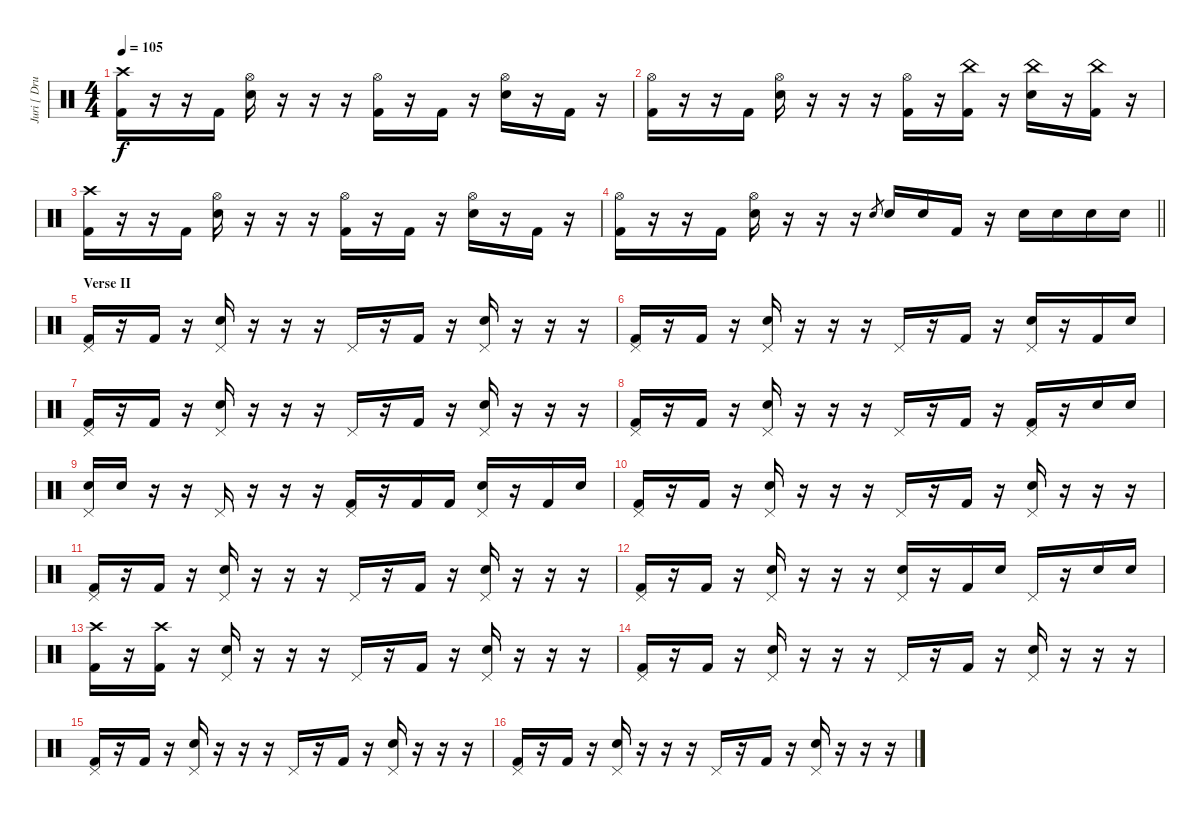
\track ("Juri [ Drums]" "Juri [ Dru") {instrument percussion}
\staff {score}
\articulation defaults
\ts (4 4)
\tempo 105
\clef neutral
\ks c
("Crash high (hit)" "Kick (hit) 2").16{dy f} r.16 r.16 "Kick (hit) 2".16 ("Hi-Hat (open)" "Electric Snare (hit)").16 r.16 r.16 r.16 ("Hi-Hat (open)" "Kick (hit) 2").16 r.16 "Kick (hit) 2".16 r.16 ("Hi-Hat (open)" "Electric Snare (hit)").16 r.16 "Kick (hit) 2".16 r.16 |
("Hi-Hat (open)" "Kick (hit) 2").16 r.16 r.16 "Kick (hit) 2".16 ("Hi-Hat (open)" "Electric Snare (hit)").16 r.16 r.16 r.16 ("Hi-Hat (open)" "Kick (hit) 2").16 r.16 ("China (hit)" "Kick (hit) 2").16 r.16 ("China (hit)" "Electric Snare (hit)").16 r.16 ("China (hit)" "Kick (hit) 2").16 r.16 |
("Crash high (hit)" "Kick (hit) 2").16 r.16 r.16 "Kick (hit) 2".16 ("Hi-Hat (open)" "Electric Snare (hit)").16 r.16 r.16 r.16 ("Hi-Hat (open)" "Kick (hit) 2").16 r.16 "Kick (hit) 2".16 r.16 ("Hi-Hat (open)" "Electric Snare (hit)").16 r.16 "Kick (hit) 2".16 r.16 |
\barLineRight lightlight
("Hi-Hat (open)" "Kick (hit) 2").16 r.16 r.16 "Kick (hit) 2".16 ("Hi-Hat (open)" "Electric Snare (hit)").16 r.16 r.16 r.16 "Electric Snare (hit)".8{gr} "Electric Snare (hit)".16 "Electric Snare (hit)".16 "Kick (hit) 2".16 r.16 "Electric Snare (hit)".16 "Electric Snare (hit)".16 "Electric Snare (hit)".16 "Electric Snare (hit)".16 |
\section ("" "Verse II")
("Pedal Hi-Hat (hit)" "Kick (hit) 2").16 r.16 "Kick (hit) 2".16 r.16 ("Pedal Hi-Hat (hit)" "Electric Snare (hit)").16 r.16 r.16 r.16 "Pedal Hi-Hat (hit)".16 r.16 "Kick (hit) 2".16 r.16 ("Pedal Hi-Hat (hit)" "Electric Snare (hit)").16 r.16 r.16 r.16 |
("Pedal Hi-Hat (hit)" "Kick (hit) 2").16 r.16 "Kick (hit) 2".16 r.16 ("Pedal Hi-Hat (hit)" "Electric Snare (hit)").16 r.16 r.16 r.16 "Pedal Hi-Hat (hit)".16 r.16 "Kick (hit) 2".16 r.16 ("Pedal Hi-Hat (hit)" "Electric Snare (hit)").16 r.16 "Kick (hit) 2".16 "Electric Snare (hit)".16 |
("Pedal Hi-Hat (hit)" "Kick (hit) 2").16 r.16 "Kick (hit) 2".16 r.16 ("Pedal Hi-Hat (hit)" "Electric Snare (hit)").16 r.16 r.16 r.16 "Pedal Hi-Hat (hit)".16 r.16 "Kick (hit) 2".16 r.16 ("Pedal Hi-Hat (hit)" "Electric Snare (hit)").16 r.16 r.16 r.16 |
("Pedal Hi-Hat (hit)" "Kick (hit) 2").16 r.16 "Kick (hit) 2".16 r.16 ("Pedal Hi-Hat (hit)" "Electric Snare (hit)").16 r.16 r.16 r.16 "Pedal Hi-Hat (hit)".16 r.16 "Kick (hit) 2".16 r.16 ("Pedal Hi-Hat (hit)" "Kick (hit) 2").16 r.16 "Electric Snare (hit)".16 "Electric Snare (hit)".16 |
("Pedal Hi-Hat (hit)" "Electric Snare (hit)").16 "Electric Snare (hit)".16 r.16 r.16 "Pedal Hi-Hat (hit)".16 r.16 r.16 r.16 ("Pedal Hi-Hat (hit)" "Kick (hit) 2").16 r.16 "Kick (hit) 2".16 "Kick (hit) 2".16 ("Pedal Hi-Hat (hit)" "Electric Snare (hit)").16 r.16 "Kick (hit) 2".16 "Electric Snare (hit)".16 |
("Pedal Hi-Hat (hit)" "Kick (hit) 2").16 r.16 "Kick (hit) 2".16 r.16 ("Pedal Hi-Hat (hit)" "Electric Snare (hit)").16 r.16 r.16 r.16 "Pedal Hi-Hat (hit)".16 r.16 "Kick (hit) 2".16 r.16 ("Pedal Hi-Hat (hit)" "Electric Snare (hit)").16 r.16 r.16 r.16 |
("Pedal Hi-Hat (hit)" "Kick (hit) 2").16 r.16 "Kick (hit) 2".16 r.16 ("Pedal Hi-Hat (hit)" "Electric Snare (hit)").16 r.16 r.16 r.16 "Pedal Hi-Hat (hit)".16 r.16 "Kick (hit) 2".16 r.16 ("Pedal Hi-Hat (hit)" "Electric Snare (hit)").16 r.16 r.16 r.16 |
("Pedal Hi-Hat (hit)" "Kick (hit) 2").16 r.16 "Kick (hit) 2".16 r.16 ("Pedal Hi-Hat (hit)" "Electric Snare (hit)").16 r.16 r.16 r.16 ("Pedal Hi-Hat (hit)" "Electric Snare (hit)").16 r.16 "Kick (hit) 2".16 "Electric Snare (hit)".16 "Pedal Hi-Hat (hit)".16 r.16 "Electric Snare (hit)".16 "Electric Snare (hit)".16 |
("Crash high (hit)" "Kick (hit) 2").16 r.16 ("Crash high (hit)" "Kick (hit) 2").16 r.16 ("Pedal Hi-Hat (hit)" "Electric Snare (hit)").16 r.16 r.16 r.16 "Pedal Hi-Hat (hit)".16 r.16 "Kick (hit) 2".16 r.16 ("Pedal Hi-Hat (hit)" "Electric Snare (hit)").16 r.16 r.16 r.16 |
("Pedal Hi-Hat (hit)" "Kick (hit) 2").16 r.16 "Kick (hit) 2".16 r.16 ("Pedal Hi-Hat (hit)" "Electric Snare (hit)").16 r.16 r.16 r.16 "Pedal Hi-Hat (hit)".16 r.16 "Kick (hit) 2".16 r.16 ("Pedal Hi-Hat (hit)" "Electric Snare (hit)").16 r.16 r.16 r.16 |
("Pedal Hi-Hat (hit)" "Kick (hit) 2").16 r.16 "Kick (hit) 2".16 r.16 ("Pedal Hi-Hat (hit)" "Electric Snare (hit)").16 r.16 r.16 r.16 "Pedal Hi-Hat (hit)".16 r.16 "Kick (hit) 2".16 r.16 ("Pedal Hi-Hat (hit)" "Electric Snare (hit)").16 r.16 r.16 r.16 |
("Pedal Hi-Hat (hit)" "Kick (hit) 2").16 r.16 "Kick (hit) 2".16 r.16 ("Pedal Hi-Hat (hit)" "Electric Snare (hit)").16 r.16 r.16 r.16 "Pedal Hi-Hat (hit)".16 r.16 "Kick (hit) 2".16 r.16 ("Pedal Hi-Hat (hit)" "Electric Snare (hit)").16 r.16 r.16 r.16
